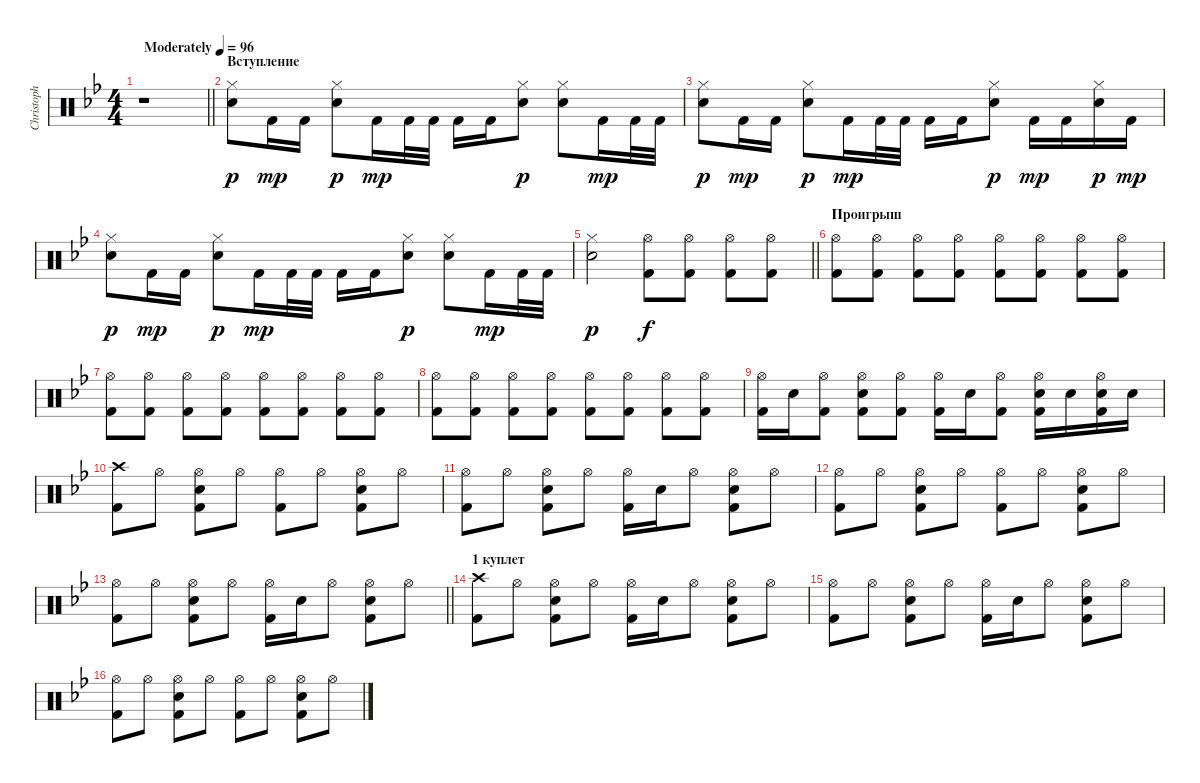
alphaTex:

\track ("Christoph Doom Schneider" "Christoph ") {instrument percussion}
\staff {score}
\articulation defaults
\ts (4 4)
\tempo (96 "Moderately")
\clef neutral
\barLineRight lightlight
\ks bb
r.1{dy p} |
\section ("" "Вступление")
("Snare (hit) 2" "Hi-Hat (closed)").8 "Kick (hit) 2".16{dy mp} "Kick (hit) 2".16 ("Snare (hit) 2" "Hi-Hat (closed)").8{dy p} "Kick (hit) 2".16{dy mp} "Kick (hit) 2".32 "Kick (hit) 2".32 "Kick (hit) 2".16 "Kick (hit) 2".16 ("Snare (hit) 2" "Hi-Hat (closed)").8{dy p} ("Snare (hit) 2" "Hi-Hat (closed)").8 "Kick (hit) 2".16{dy mp} "Kick (hit) 2".32 "Kick (hit) 2".32 |
("Snare (hit) 2" "Hi-Hat (closed)").8{dy p} "Kick (hit) 2".16{dy mp} "Kick (hit) 2".16 ("Snare (hit) 2" "Hi-Hat (closed)").8{dy p} "Kick (hit) 2".16{dy mp} "Kick (hit) 2".32 "Kick (hit) 2".32 "Kick (hit) 2".16 "Kick (hit) 2".16 ("Snare (hit) 2" "Hi-Hat (closed)").8{dy p} "Kick (hit) 2".16{dy mp} "Kick (hit) 2".16 ("Snare (hit) 2" "Hi-Hat (closed)").16{dy p} "Kick (hit) 2".16{dy mp} |
("Snare (hit) 2" "Hi-Hat (closed)").8{dy p} "Kick (hit) 2".16{dy mp} "Kick (hit) 2".16 ("Snare (hit) 2" "Hi-Hat (closed)").8{dy p} "Kick (hit) 2".16{dy mp} "Kick (hit) 2".32 "Kick (hit) 2".32 "Kick (hit) 2".16 "Kick (hit) 2".16 ("Snare (hit) 2" "Hi-Hat (closed)").8{dy p} ("Snare (hit) 2" "Hi-Hat (closed)").8 "Kick (hit) 2".16{dy mp} "Kick (hit) 2".32 "Kick (hit) 2".32 |
\barLineRight lightlight
("Snare (hit) 2" "Hi-Hat (closed)").2{dy p} ("Hi-Hat (open)" "Kick (hit) 2").8{dy f} ("Hi-Hat (open)" "Kick (hit) 2").8 ("Hi-Hat (open)" "Kick (hit) 2").8 ("Hi-Hat (open)" "Kick (hit) 2").8 |
\section ("" "Проигрыш")
("Hi-Hat (open)" "Kick (hit) 2").8 ("Hi-Hat (open)" "Kick (hit) 2").8 ("Hi-Hat (open)" "Kick (hit) 2").8 ("Hi-Hat (open)" "Kick (hit) 2").8 ("Hi-Hat (open)" "Kick (hit) 2").8 ("Hi-Hat (open)" "Kick (hit) 2").8 ("Hi-Hat (open)" "Kick (hit) 2").8 ("Hi-Hat (open)" "Kick (hit) 2").8 |
("Hi-Hat (open)" "Kick (hit) 2").8 ("Hi-Hat (open)" "Kick (hit) 2").8 ("Hi-Hat (open)" "Kick (hit) 2").8 ("Hi-Hat (open)" "Kick (hit) 2").8 ("Hi-Hat (open)" "Kick (hit) 2").8 ("Hi-Hat (open)" "Kick (hit) 2").8 ("Hi-Hat (open)" "Kick (hit) 2").8 ("Hi-Hat (open)" "Kick (hit) 2").8 |
("Hi-Hat (open)" "Kick (hit) 2").8 ("Hi-Hat (open)" "Kick (hit) 2").8 ("Hi-Hat (open)" "Kick (hit) 2").8 ("Hi-Hat (open)" "Kick (hit) 2").8 ("Hi-Hat (open)" "Kick (hit) 2").8 ("Hi-Hat (open)" "Kick (hit) 2").8 ("Hi-Hat (open)" "Kick (hit) 2").8 ("Hi-Hat (open)" "Kick (hit) 2").8 |
("Hi-Hat (open)" "Kick (hit) 2").16 "Snare (hit) 2".16 ("Hi-Hat (open)" "Kick (hit) 2").8 ("Snare (hit) 2" "Hi-Hat (open)" "Kick (hit) 2").8 ("Hi-Hat (open)" "Kick (hit) 2").8 ("Hi-Hat (open)" "Kick (hit) 2").16 "Snare (hit) 2".16 ("Hi-Hat (open)" "Kick (hit) 2").8 ("Snare (hit) 2" "Hi-Hat (open)" "Kick (hit) 2").16 "Snare (hit) 2".16 ("Snare (hit) 2" "Hi-Hat (open)" "Kick (hit) 2").16 "Snare (hit) 2".16 |
("Crash high (hit)" "Kick (hit) 2").8 "Hi-Hat (open)".8 ("Snare (hit) 2" "Hi-Hat (open)" "Kick (hit) 2").8 "Hi-Hat (open)".8 ("Hi-Hat (open)" "Kick (hit) 2").8 "Hi-Hat (open)".8 ("Snare (hit) 2" "Hi-Hat (open)" "Kick (hit) 2").8 "Hi-Hat (open)".8 |
("Hi-Hat (open)" "Kick (hit) 2").8 "Hi-Hat (open)".8 ("Snare (hit) 2" "Hi-Hat (open)" "Kick (hit) 2").8 "Hi-Hat (open)".8 ("Hi-Hat (open)" "Kick (hit) 2").16 "Snare (hit) 2".16 "Hi-Hat (open)".8 ("Snare (hit) 2" "Hi-Hat (open)" "Kick (hit) 2").8 "Hi-Hat (open)".8 |
("Hi-Hat (open)" "Kick (hit) 2").8 "Hi-Hat (open)".8 ("Snare (hit) 2" "Hi-Hat (open)" "Kick (hit) 2").8 "Hi-Hat (open)".8 ("Hi-Hat (open)" "Kick (hit) 2").8 "Hi-Hat (open)".8 ("Snare (hit) 2" "Hi-Hat (open)" "Kick (hit) 2").8 "Hi-Hat (open)".8 |
\barLineRight lightlight
("Hi-Hat (open)" "Kick (hit) 2").8 "Hi-Hat (open)".8 ("Snare (hit) 2" "Hi-Hat (open)" "Kick (hit) 2").8 "Hi-Hat (open)".8 ("Hi-Hat (open)" "Kick (hit) 2").16 "Snare (hit) 2".16 "Hi-Hat (open)".8 ("Snare (hit) 2" "Hi-Hat (open)" "Kick (hit) 2").8 "Hi-Hat (open)".8 |
\section ("" "1 куплет")
("Crash high (hit)" "Kick (hit) 2").8 "Hi-Hat (open)".8 ("Snare (hit) 2" "Hi-Hat (open)" "Kick (hit) 2").8 "Hi-Hat (open)".8 ("Hi-Hat (open)" "Kick (hit) 2").16 "Snare (hit) 2".16 "Hi-Hat (open)".8 ("Snare (hit) 2" "Hi-Hat (open)" "Kick (hit) 2").8 "Hi-Hat (open)".8 |
("Hi-Hat (open)" "Kick (hit) 2").8 "Hi-Hat (open)".8 ("Snare (hit) 2" "Hi-Hat (open)" "Kick (hit) 2").8 "Hi-Hat (open)".8 ("Hi-Hat (open)" "Kick (hit) 2").16 "Snare (hit) 2".16 "Hi-Hat (open)".8 ("Snare (hit) 2" "Hi-Hat (open)" "Kick (hit) 2").8 "Hi-Hat (open)".8 |
("Hi-Hat (open)" "Kick (hit) 2").8 "Hi-Hat (open)".8 ("Snare (hit) 2" "Hi-Hat (open)" "Kick (hit) 2").8 "Hi-Hat (open)".8 ("Hi-Hat (open)" "Kick (hit) 2").8 "Hi-Hat (open)".8 ("Snare (hit) 2" "Hi-Hat (open)" "Kick (hit) 2").8 "Hi-Hat (open)".8
